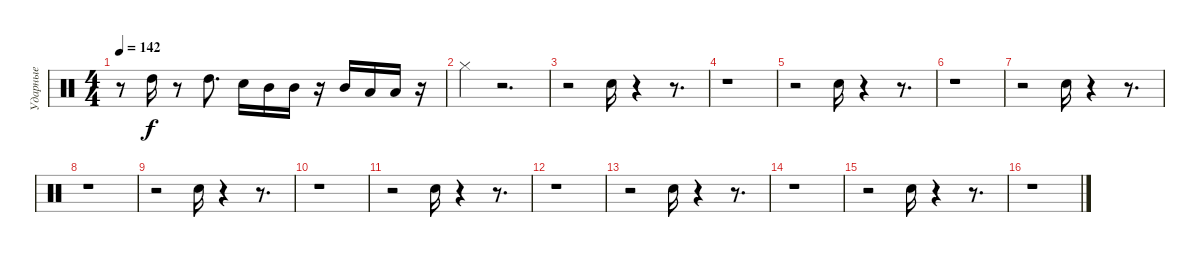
\track ("Ударные" "Ударные") {instrument percussion}
\staff {score}
\articulation defaults
\ts (4 4)
\tempo 142
\clef neutral
\ks c
r.8{dy f} "High Tom (hit)".16 r.8 "High Tom (hit)".8{d} "Snare (hit) 2".16 "Mid Tom (hit)".16 "Mid Tom (hit)".16 r.16 "Mid Tom (hit)".16 "Low Tom (hit)".16 "Low Tom (hit)".16 r.16 |
"Hi-Hat (closed)".4 r.2{d} |
r.2 "Snare (hit) 2".16 r.4 r.8{d} |
r.1 |
r.2 "Snare (hit) 2".16 r.4 r.8{d} |
r.1 |
r.2 "Snare (hit) 2".16 r.4 r.8{d} |
r.1 |
r.2 "Snare (hit) 2".16 r.4 r.8{d} |
r.1 |
r.2 "Snare (hit) 2".16 r.4 r.8{d} |
r.1 |
r.2 "Snare (hit) 2".16 r.4 r.8{d} |
r.1 |
r.2 "Snare (hit) 2".16 r.4 r.8{d} |
r.1
